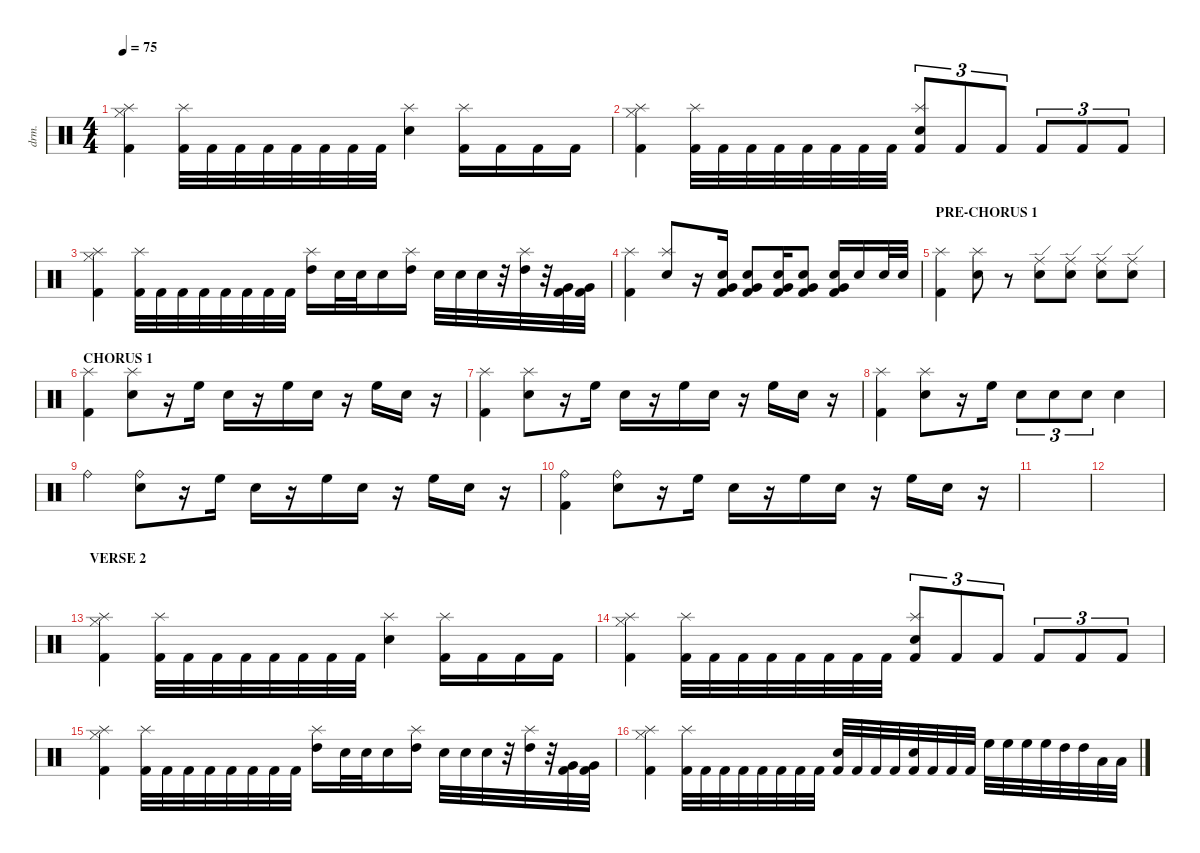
\defaultSystemsLayout 4
\hideDynamics
\bracketExtendMode nobrackets
\otherSystemsTrackNameOrientation horizontal
\track ("Drumkit" "drm.") {instrument percussion}
\staff {score}
\articulation defaults
\ts (4 4)
\tempo 75
\clef neutral
\ks c
("Splash (hit)" "Kick (hit) 2" "Hi-Hat (closed)").4{dy mf beam Down} ("Splash (hit)" "Kick (hit) 2").32{beam Down} "Kick (hit) 2".32{beam Down} "Kick (hit) 2".32{beam Down} "Kick (hit) 2".32{beam Down} "Kick (hit) 2".32{beam Down} "Kick (hit) 2".32{beam Down} "Kick (hit) 2".32{beam Down} "Kick (hit) 2".32{beam Down} ("Splash (hit)" "Snare (hit) 2").4{beam Down} ("Splash (hit)" "Kick (hit) 2").16{beam Down} "Kick (hit) 2".16{beam Down} "Kick (hit) 2".16{beam Down} "Kick (hit) 2".16{beam Down} |
("Splash (hit)" "Kick (hit) 2" "Hi-Hat (closed)").4{beam Down} ("Splash (hit)" "Kick (hit) 2").32{beam Down} "Kick (hit) 2".32{beam Down} "Kick (hit) 2".32{beam Down} "Kick (hit) 2".32{beam Down} "Kick (hit) 2".32{beam Down} "Kick (hit) 2".32{beam Down} "Kick (hit) 2".32{beam Down} "Kick (hit) 2".32{beam Down} ("Kick (hit) 2" "Splash (hit)" "Snare (hit) 2").8{tu (3 2) beam Up} "Kick (hit) 2".8{tu (3 2) beam Up} "Kick (hit) 2".8{tu (3 2) beam Up} "Kick (hit) 2".8{tu (3 2) beam Up} "Kick (hit) 2".8{tu (3 2) beam Up} "Kick (hit) 2".8{tu (3 2) beam Up} |
("Splash (hit)" "Kick (hit) 2" "Hi-Hat (closed)").4{beam Down} ("Splash (hit)" "Kick (hit) 2").32{beam Down} "Kick (hit) 2".32{beam Down} "Kick (hit) 2".32{beam Down} "Kick (hit) 2".32{beam Down} "Kick (hit) 2".32{beam Down} "Kick (hit) 2".32{beam Down} "Kick (hit) 2".32{beam Down} "Kick (hit) 2".32{beam Down} ("High Tom (hit)" "Splash (hit)").16{beam Down} "Snare (hit) 2".32{beam Down} "Snare (hit) 2".32{beam Down} "Snare (hit) 2".16{beam Down} ("High Tom (hit)" "Splash (hit)").16{beam Down} "Snare (hit) 2".32{beam Down} "Snare (hit) 2".32{beam Down} "Snare (hit) 2".32{beam Down} r.32{beam Down} ("High Tom (hit)" "Splash (hit)").32{beam Down} r.32{beam Down} ("Very Low Tom (hit)" "Kick (hit) 2").32{beam Down} ("Very Low Tom (hit)" "Kick (hit) 2").32{beam Down} |
("Kick (hit) 2" "Splash (hit)").4{beam Down} ("Splash (hit)" "Snare (hit) 2").8{beam Up} r.16{beam Up} ("Kick (hit) 2" "Snare (hit) 2" "Very Low Tom (hit)").16{beam Up} ("Snare (hit) 2" "Kick (hit) 2" "Very Low Tom (hit)").8{beam Up} ("Kick (hit) 2" "Snare (hit) 2" "Very Low Tom (hit)").16{beam Up} ("Snare (hit) 2" "Kick (hit) 2" "Very Low Tom (hit)").8{beam Up} ("Kick (hit) 2" "Snare (hit) 2" "Very Low Tom (hit)").16{beam Up} "Snare (hit) 2".16{beam Up} "Snare (hit) 2".32{beam Up} "Snare (hit) 2".32{beam Up} |
\section ("" "PRE-CHORUS 1")
("Kick (hit) 2" "Splash (hit)").4{beam Down} ("Snare (hit) 2" "Splash (hit)").8{beam Down} r.8{beam Down} ("Snare (hit) 2" "Ride (edge)").8{beam Down} ("Snare (hit) 2" "Ride (edge)").8{beam Down} ("Snare (hit) 2" "Ride (edge)").8{beam Down} ("Snare (hit) 2" "Ride (edge)").8{beam Down} |
\section ("" "CHORUS 1")
("Kick (hit) 2" "Splash (hit)").4{beam Down} ("Snare (hit) 2" "Splash (hit)").8{beam Down} r.16{beam Down} "High Floor Tom (hit)".16{beam Down} "Snare (hit) 2".16{beam Down} r.16{beam Down} "High Floor Tom (hit)".16{beam Down} "Snare (hit) 2".16{beam Down} r.16{beam Down} "High Floor Tom (hit)".16{beam Down} "Snare (hit) 2".16{beam Down} r.16{beam Down} |
("Kick (hit) 2" "Splash (hit)").4{beam Down} ("Snare (hit) 2" "Splash (hit)").8{beam Down} r.16{beam Down} "High Floor Tom (hit)".16{beam Down} "Snare (hit) 2".16{beam Down} r.16{beam Down} "High Floor Tom (hit)".16{beam Down} "Snare (hit) 2".16{beam Down} r.16{beam Down} "High Floor Tom (hit)".16{beam Down} "Snare (hit) 2".16{beam Down} r.16{beam Down} |
("Kick (hit) 2" "Splash (hit)").4{beam Down} ("Snare (hit) 2" "Splash (hit)").8{beam Down} r.16{beam Down} "High Floor Tom (hit)".16{beam Down} "Snare (hit) 2".8{tu (3 2) beam Down} "Snare (hit) 2".8{tu (3 2) beam Down} "Snare (hit) 2".8{tu (3 2) beam Down} "Snare (hit) 2".4{beam Down} |
"Ride (bell)".4{beam Down} ("Snare (hit) 2" "Ride (bell)").8{beam Down} r.16{beam Down} "High Floor Tom (hit)".16{beam Down} "Snare (hit) 2".16{beam Down} r.16{beam Down} "High Floor Tom (hit)".16{beam Down} "Snare (hit) 2".16{beam Down} r.16{beam Down} "High Floor Tom (hit)".16{beam Down} "Snare (hit) 2".16{beam Down} r.16{beam Down} |
("Kick (hit) 2" "Ride (bell)").4{beam Down} ("Snare (hit) 2" "Ride (bell)").8{beam Down} r.16{beam Down} "High Floor Tom (hit)".16{beam Down} "Snare (hit) 2".16{beam Down} r.16{beam Down} "High Floor Tom (hit)".16{beam Down} "Snare (hit) 2".16{beam Down} r.16{beam Down} "High Floor Tom (hit)".16{beam Down} "Snare (hit) 2".16{beam Down} r.16{beam Down} |
|
|
\section ("" "VERSE 2")
("Splash (hit)" "Kick (hit) 2" "Hi-Hat (closed)").4{beam Down} ("Splash (hit)" "Kick (hit) 2").32{beam Down} "Kick (hit) 2".32{beam Down} "Kick (hit) 2".32{beam Down} "Kick (hit) 2".32{beam Down} "Kick (hit) 2".32{beam Down} "Kick (hit) 2".32{beam Down} "Kick (hit) 2".32{beam Down} "Kick (hit) 2".32{beam Down} ("Splash (hit)" "Snare (hit) 2").4{beam Down} ("Splash (hit)" "Kick (hit) 2").16{beam Down} "Kick (hit) 2".16{beam Down} "Kick (hit) 2".16{beam Down} "Kick (hit) 2".16{beam Down} |
("Splash (hit)" "Kick (hit) 2" "Hi-Hat (closed)").4{beam Down} ("Splash (hit)" "Kick (hit) 2").32{beam Down} "Kick (hit) 2".32{beam Down} "Kick (hit) 2".32{beam Down} "Kick (hit) 2".32{beam Down} "Kick (hit) 2".32{beam Down} "Kick (hit) 2".32{beam Down} "Kick (hit) 2".32{beam Down} "Kick (hit) 2".32{beam Down} ("Kick (hit) 2" "Splash (hit)" "Snare (hit) 2").8{tu (3 2) beam Up} "Kick (hit) 2".8{tu (3 2) beam Up} "Kick (hit) 2".8{tu (3 2) beam Up} "Kick (hit) 2".8{tu (3 2) beam Up} "Kick (hit) 2".8{tu (3 2) beam Up} "Kick (hit) 2".8{tu (3 2) beam Up} |
("Splash (hit)" "Kick (hit) 2" "Hi-Hat (closed)").4{beam Down} ("Splash (hit)" "Kick (hit) 2").32{beam Down} "Kick (hit) 2".32{beam Down} "Kick (hit) 2".32{beam Down} "Kick (hit) 2".32{beam Down} "Kick (hit) 2".32{beam Down} "Kick (hit) 2".32{beam Down} "Kick (hit) 2".32{beam Down} "Kick (hit) 2".32{beam Down} ("High Tom (hit)" "Splash (hit)").16{beam Down} "Snare (hit) 2".32{beam Down} "Snare (hit) 2".32{beam Down} "Snare (hit) 2".16{beam Down} ("High Tom (hit)" "Splash (hit)").16{beam Down} "Snare (hit) 2".32{beam Down} "Snare (hit) 2".32{beam Down} "Snare (hit) 2".32{beam Down} r.32{beam Down} ("High Tom (hit)" "Splash (hit)").32{beam Down} r.32{beam Down} ("Very Low Tom (hit)" "Kick (hit) 2").32{beam Down} ("Very Low Tom (hit)" "Kick (hit) 2").32{beam Down} |
("Splash (hit)" "Kick (hit) 2" "Hi-Hat (closed)").4{beam Down} ("Splash (hit)" "Kick (hit) 2").32{beam Down} "Kick (hit) 2".32{beam Down} "Kick (hit) 2".32{beam Down} "Kick (hit) 2".32{beam Down} "Kick (hit) 2".32{beam Down} "Kick (hit) 2".32{beam Down} "Kick (hit) 2".32{beam Down} "Kick (hit) 2".32{beam Down} ("Kick (hit) 2" "Snare (hit) 2").32{beam Up} "Kick (hit) 2".32{beam Up} "Kick (hit) 2".32{beam Up} "Kick (hit) 2".32{beam Up} ("Kick (hit) 2" "Snare (hit) 2").32{beam Up} "Kick (hit) 2".32{beam Up} "Kick (hit) 2".32{beam Up} "Kick (hit) 2".32{beam Up} "High Floor Tom (hit)".32{beam Down} "High Floor Tom (hit)".32{beam Down} "High Floor Tom (hit)".32{beam Down} "High Floor Tom (hit)".32{beam Down} "High Tom (hit)".32{beam Down} "High Tom (hit)".32{beam Down} "Low Tom (hit)".32{beam Down} "Low Tom (hit)".32{beam Down}
